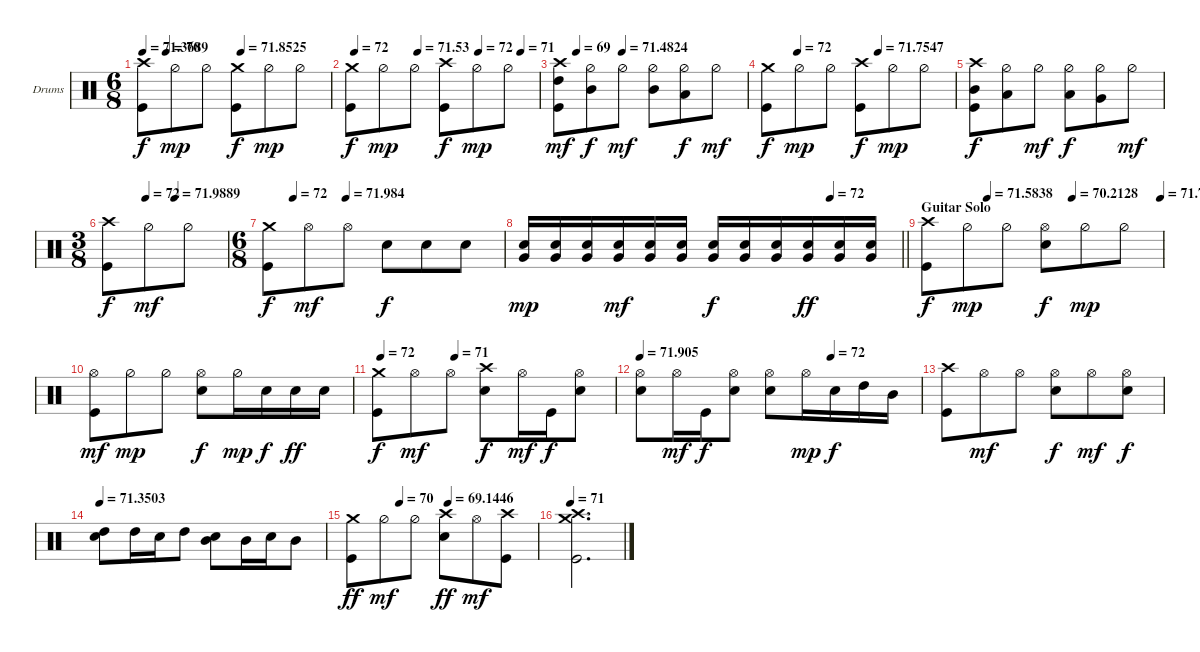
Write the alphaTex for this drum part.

\bracketExtendMode groupsimilarinstruments
\firstSystemTrackNameOrientation horizontal
\otherSystemsTrackNameOrientation horizontal
\track ("Drums" "Drums") {instrument percussion}
\staff {score}
\articulation defaults
\ts (6 8)
\tempo
71.3689
\tempo (70 0.125)
\tempo (71.8525 0.525)
\accidentals auto
\clef neutral
\ottava regular
\simile none
\ks c
("Crash high (hit)" "Kick (hit)").8{dy f} "Hi-Hat (half)".8{dy mp} "Hi-Hat (half)".8 ("Crash medium (hit)" "Kick (hit)").8{dy f} "Hi-Hat (half)".8{dy mp} "Hi-Hat (half)".8 |
\tempo (72 0.01875)
\tempo (71.53 0.35625)
\tempo (72 0.68125)
\tempo (71 0.90625)
("Crash medium (hit)" "Kick (hit)").8{dy f} "Hi-Hat (half)".8{dy mp} "Hi-Hat (half)".8 ("Crash high (hit)" "Kick (hit)").8{dy f} "Hi-Hat (half)".8{dy mp} "Hi-Hat (half)".8 |
\tempo (69 0.09375)
\tempo (71.4824 0.3375)
("Crash high (hit)" "Kick (hit)" "High Tom (hit)").8{dy mf} ("Hi-Hat (half)" "Mid Tom (hit)").8{dy f} "Hi-Hat (half)".8{dy mf} ("Hi-Hat (half)" "Mid Tom (hit)").8 ("Hi-Hat (half)" "Low Tom (hit)").8{dy f} "Hi-Hat (half)".8{dy mf} |
\tempo (72 0.1625)
\tempo (71.7547 0.59375)
("Crash medium (hit)" "Kick (hit)").8{dy f} "Hi-Hat (half)".8{dy mp} "Hi-Hat (half)".8 ("Crash high (hit)" "Kick (hit)").8{dy f} "Hi-Hat (half)".8{dy mp} "Hi-Hat (half)".8 |
("Crash high (hit)" "Kick (hit)" "Mid Tom (hit)").8{dy f} ("Hi-Hat (half)" "Low Tom (hit)").8 "Hi-Hat (half)".8{dy mf} ("Hi-Hat (half)" "Low Tom (hit)").8{dy f} ("Hi-Hat (half)" "Very Low Tom (hit)").8 "Hi-Hat (half)".8{dy mf} |
\ts (3 8)
\beaming (8 3)
\tempo (72 0.31875)
\tempo (71.9889 0.5625)
("Crash high (hit)" "Kick (hit)").8{dy f} "Hi-Hat (half)".8{dy mf} "Hi-Hat (half)".8 |
\ts (6 8)
\beaming (8 3 3)
\tempo (72 0.10625)
\tempo (71.984 0.33125)
("Crash medium (hit)" "Kick (hit)").8{dy f} "Hi-Hat (open)".8{dy mf} "Hi-Hat (open)".8 "Snare (hit) 2".8{dy f} "Snare (hit) 2".8 "Snare (hit) 2".8 |
\tempo (72 0.8125)
\barLineRight lightlight
("Very Low Tom (hit)" "Snare (hit) 2").16{dy mp} ("Very Low Tom (hit)" "Snare (hit) 2").16 ("Very Low Tom (hit)" "Snare (hit) 2").16 ("Very Low Tom (hit)" "Snare (hit) 2").16{dy mf} ("Very Low Tom (hit)" "Snare (hit) 2").16 ("Very Low Tom (hit)" "Snare (hit) 2").16 ("Very Low Tom (hit)" "Snare (hit) 2").16{dy f} ("Very Low Tom (hit)" "Snare (hit) 2").16 ("Very Low Tom (hit)" "Snare (hit) 2").16 ("Very Low Tom (hit)" "Snare (hit) 2").16{dy ff} ("Very Low Tom (hit)" "Snare (hit) 2").16 ("Very Low Tom (hit)" "Snare (hit) 2").16 |
\section ("" "Guitar Solo")
\tempo (71.5838 0.25625)
\tempo (70.2128 0.61875)
\tempo (71.744 0.99375)
("Crash high (hit)" "Kick (hit)").8{dy f} "Hi-Hat (half)".8{dy mp} "Hi-Hat (half)".8 ("Hi-Hat (open)" "Snare (hit) 2").8{dy f} "Hi-Hat (half)".8{dy mp} "Hi-Hat (half)".8 |
("Hi-Hat (open)" "Kick (hit)").8{dy mf} "Hi-Hat (half)".8{dy mp} "Hi-Hat (half)".8 ("Hi-Hat (open)" "Snare (hit) 2").8{dy f} "Hi-Hat (half)".16{dy mp} "Snare (hit) 2".16{dy f} "Snare (hit) 2".16{dy ff} "Snare (hit) 2".16 |
\tempo (72 0.0125)
\tempo (71 0.325)
("Crash medium (hit)" "Kick (hit)").8{dy f} "Hi-Hat (open)".8{dy mf} "Hi-Hat (open)".8 ("Crash high (hit)" "Snare (hit) 2").8{dy f} "Hi-Hat (open)".16{dy mf} "Kick (hit)".16{dy f} ("Hi-Hat (open)" "Snare (hit) 2").8 |
\tempo
71.905
\tempo (72 0.68125)
("Hi-Hat (open)" "Snare (hit) 2").8 "Hi-Hat (open)".16{dy mf} "Kick (hit)".16{dy f} ("Hi-Hat (open)" "Snare (hit) 2").8 ("Hi-Hat (open)" "Snare (hit) 2").8 "Hi-Hat (open)".16{dy mp} "Snare (hit) 2".16{dy f} "High Tom (hit)".16 "Mid Tom (hit)".16 |
("Crash high (hit)" "Kick (hit)").8 "Hi-Hat (open)".8{dy mf} "Hi-Hat (open)".8 ("Hi-Hat (open)" "Snare (hit) 2").8{dy f} "Hi-Hat (open)".8{dy mf} ("Hi-Hat (open)" "Snare (hit) 2").8{dy f} |
\tempo (71.3503 0.00625)
("High Tom (hit)" "Snare (hit) 2").8 "High Tom (hit)".16 "Snare (hit) 2".16 "High Tom (hit)".8 ("Mid Tom (hit)" "Snare (hit) 2").8 "Mid Tom (hit)".16 "Snare (hit) 2".16 "Mid Tom (hit)".8 |
\tempo (70 0.25625)
\tempo (69.1446 0.51875)
("Crash medium (hit)" "Kick (hit)").8{dy ff} "Hi-Hat (half)".8{dy mf} "Hi-Hat (half)".8 ("Crash high (hit)" "Snare (hit) 2").8{dy ff} "Hi-Hat (open)".8{dy mf} ("Crash high (hit)" "Kick (hit)").8 |
\tempo 71
("Crash high (hit)" "Crash medium (hit)" "Kick (hit)").2{d}
